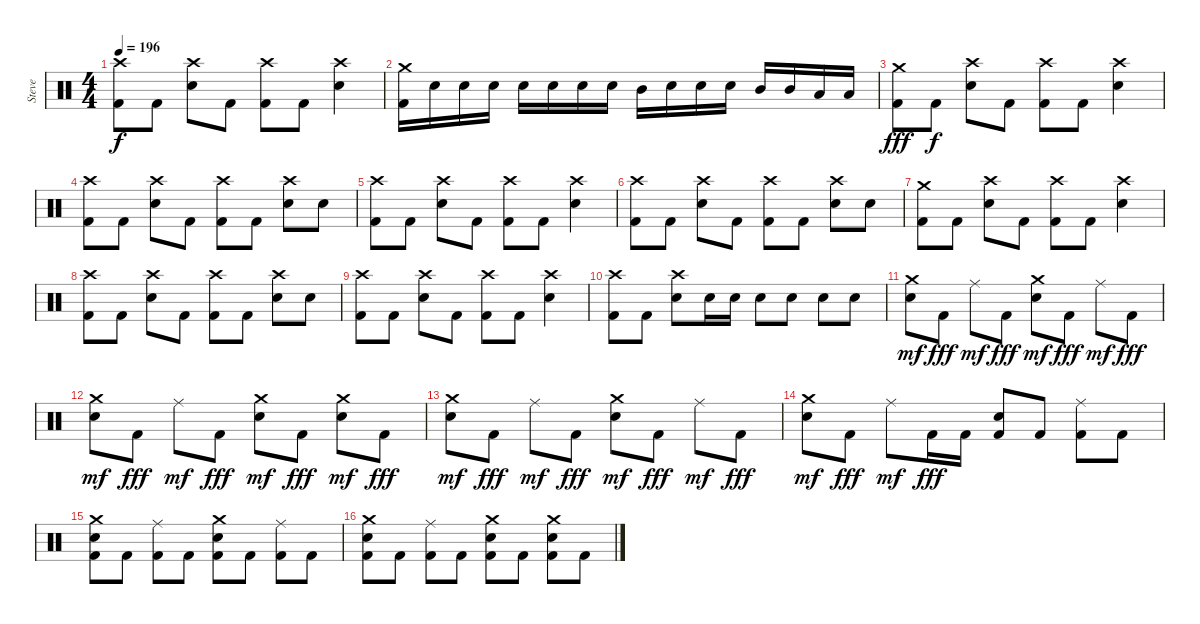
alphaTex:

\track ("Steve" "Steve") {instrument percussion}
\staff {score}
\articulation defaults
\ts (4 4)
\tempo 196
\clef neutral
\ks c
("Crash high (hit)" "Kick (hit) 2").8{dy f} "Kick (hit) 2".8 ("Crash high (hit)" "Electric Snare (hit)").8 "Kick (hit) 2".8 ("Crash high (hit)" "Kick (hit) 2").8 "Kick (hit) 2".8 ("Crash high (hit)" "Electric Snare (hit)").4 |
("Crash medium (hit)" "Kick (hit) 2").16 "Electric Snare (hit)".16 "Electric Snare (hit)".16 "Electric Snare (hit)".16 "Electric Snare (hit)".16 "Electric Snare (hit)".16 "Electric Snare (hit)".16 "Electric Snare (hit)".16 "Mid Tom (hit)".16 "Electric Snare (hit)".16 "Electric Snare (hit)".16 "Electric Snare (hit)".16 "Mid Tom (hit)".16 "Mid Tom (hit)".16 "Low Tom (hit)".16 "Low Tom (hit)".16 |
("Crash medium (hit)" "Kick (hit) 2").8{dy fff} "Kick (hit) 2".8{dy f} ("Crash high (hit)" "Electric Snare (hit)").8 "Kick (hit) 2".8 ("Crash high (hit)" "Kick (hit) 2").8 "Kick (hit) 2".8 ("Crash high (hit)" "Electric Snare (hit)").4 |
("Crash high (hit)" "Kick (hit) 2").8 "Kick (hit) 2".8 ("Crash high (hit)" "Electric Snare (hit)").8 "Kick (hit) 2".8 ("Crash high (hit)" "Kick (hit) 2").8 "Kick (hit) 2".8 ("Crash high (hit)" "Electric Snare (hit)").8 "Electric Snare (hit)".8 |
("Crash high (hit)" "Kick (hit) 2").8 "Kick (hit) 2".8 ("Crash high (hit)" "Electric Snare (hit)").8 "Kick (hit) 2".8 ("Crash high (hit)" "Kick (hit) 2").8 "Kick (hit) 2".8 ("Crash high (hit)" "Electric Snare (hit)").4 |
("Crash high (hit)" "Kick (hit) 2").8 "Kick (hit) 2".8 ("Crash high (hit)" "Electric Snare (hit)").8 "Kick (hit) 2".8 ("Crash high (hit)" "Kick (hit) 2").8 "Kick (hit) 2".8 ("Crash high (hit)" "Electric Snare (hit)").8 "Electric Snare (hit)".8 |
("Crash medium (hit)" "Kick (hit) 2").8 "Kick (hit) 2".8 ("Crash high (hit)" "Electric Snare (hit)").8 "Kick (hit) 2".8 ("Crash high (hit)" "Kick (hit) 2").8 "Kick (hit) 2".8 ("Crash high (hit)" "Electric Snare (hit)").4 |
("Crash high (hit)" "Kick (hit) 2").8 "Kick (hit) 2".8 ("Crash high (hit)" "Electric Snare (hit)").8 "Kick (hit) 2".8 ("Crash high (hit)" "Kick (hit) 2").8 "Kick (hit) 2".8 ("Crash high (hit)" "Electric Snare (hit)").8 "Electric Snare (hit)".8 |
("Crash high (hit)" "Kick (hit) 2").8 "Kick (hit) 2".8 ("Crash high (hit)" "Electric Snare (hit)").8 "Kick (hit) 2".8 ("Crash high (hit)" "Kick (hit) 2").8 "Kick (hit) 2".8 ("Crash high (hit)" "Electric Snare (hit)").4 |
("Crash high (hit)" "Kick (hit) 2").8 "Kick (hit) 2".8 ("Crash high (hit)" "Electric Snare (hit)").8 "Electric Snare (hit)".16 "Electric Snare (hit)".16 "Electric Snare (hit)".8 "Electric Snare (hit)".8 "Electric Snare (hit)".8 "Electric Snare (hit)".8 |
("Crash medium (hit)" "Electric Snare (hit)").8{dy mf} "Kick (hit) 2".8{dy fff} "Ride (middle)".8{dy mf} "Kick (hit) 2".8{dy fff} ("Crash medium (hit)" "Electric Snare (hit)").8{dy mf} "Kick (hit) 2".8{dy fff} "Ride (middle)".8{dy mf} "Kick (hit) 2".8{dy fff} |
("Crash medium (hit)" "Electric Snare (hit)").8{dy mf} "Kick (hit) 2".8{dy fff} "Ride (middle)".8{dy mf} "Kick (hit) 2".8{dy fff} ("Crash medium (hit)" "Electric Snare (hit)").8{dy mf} "Kick (hit) 2".8{dy fff} ("Crash medium (hit)" "Electric Snare (hit)").8{dy mf} "Kick (hit) 2".8{dy fff} |
("Crash medium (hit)" "Electric Snare (hit)").8{dy mf} "Kick (hit) 2".8{dy fff} "Ride (middle)".8{dy mf} "Kick (hit) 2".8{dy fff} ("Crash medium (hit)" "Electric Snare (hit)").8{dy mf} "Kick (hit) 2".8{dy fff} "Ride (middle)".8{dy mf} "Kick (hit) 2".8{dy fff} |
("Crash medium (hit)" "Electric Snare (hit)").8{dy mf} "Kick (hit) 2".8{dy fff} "Ride (middle)".8{dy mf} "Kick (hit) 2".16{dy fff} "Kick (hit) 2".16 ("Electric Snare (hit)" "Kick (hit) 2").8 "Kick (hit) 2".8 ("Ride (middle)" "Kick (hit) 2").8 "Kick (hit) 2".8 |
("Crash medium (hit)" "Electric Snare (hit)" "Kick (hit) 2").8 "Kick (hit) 2".8 ("Ride (middle)" "Kick (hit) 2").8 "Kick (hit) 2".8 ("Crash medium (hit)" "Electric Snare (hit)" "Kick (hit) 2").8 "Kick (hit) 2".8 ("Ride (middle)" "Kick (hit) 2").8 "Kick (hit) 2".8 |
("Crash medium (hit)" "Electric Snare (hit)" "Kick (hit) 2").8 "Kick (hit) 2".8 ("Ride (middle)" "Kick (hit) 2").8 "Kick (hit) 2".8 ("Crash medium (hit)" "Electric Snare (hit)" "Kick (hit) 2").8 "Kick (hit) 2".8 ("Crash medium (hit)" "Electric Snare (hit)" "Kick (hit) 2").8 "Kick (hit) 2".8
